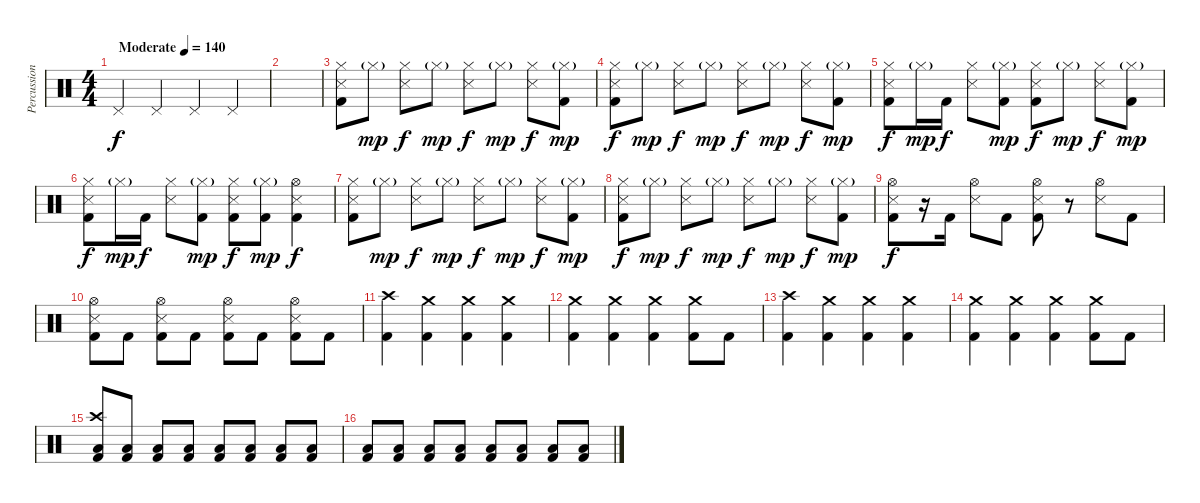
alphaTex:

\track ("Percussion" "Percussion") {instrument percussion}
\staff {score}
\articulation defaults
\ts (4 4)
\tempo (140 "Moderate")
\clef neutral
\ks c "Pedal Hi-Hat (hit)".4{dy f} "Pedal Hi-Hat (hit)".4 "Pedal Hi-Hat (hit)".4 "Pedal Hi-Hat (hit)".4
|
|
("Hi-Hat (closed)" "Snare (side stick) 3" "Kick (hit) 2").8 "Hi-Hat (closed)"{g}.8{dy mp} ("Hi-Hat (closed)" "Snare (side stick) 3").8{dy f} "Hi-Hat (closed)"{g}.8{dy mp} ("Hi-Hat (closed)" "Snare (side stick) 3").8{dy f} "Hi-Hat (closed)"{g}.8{dy mp} ("Hi-Hat (closed)" "Snare (side stick) 3").8{dy f} ("Hi-Hat (closed)"{g} "Kick (hit) 2").8{dy mp} |
("Hi-Hat (closed)" "Snare (side stick) 3" "Kick (hit) 2").8{dy f} "Hi-Hat (closed)"{g}.8{dy mp} ("Hi-Hat (closed)" "Snare (side stick) 3").8{dy f} "Hi-Hat (closed)"{g}.8{dy mp} ("Hi-Hat (closed)" "Snare (side stick) 3").8{dy f} "Hi-Hat (closed)"{g}.8{dy mp} ("Hi-Hat (closed)" "Snare (side stick) 3").8{dy f} ("Hi-Hat (closed)"{g} "Kick (hit) 2").8{dy mp} |
("Hi-Hat (closed)" "Snare (side stick) 3" "Kick (hit) 2").8{dy f} "Hi-Hat (closed)"{g}.16{dy mp} "Kick (hit) 2".16{dy f} ("Hi-Hat (closed)" "Snare (side stick) 3").8 ("Hi-Hat (closed)"{g} "Kick (hit) 2").8{dy mp} ("Hi-Hat (closed)" "Snare (side stick) 3" "Kick (hit) 2").8{dy f} "Hi-Hat (closed)"{g}.8{dy mp} ("Hi-Hat (closed)" "Snare (side stick) 3").8{dy f} ("Hi-Hat (closed)"{g} "Kick (hit) 2").8{dy mp} |
("Hi-Hat (closed)" "Snare (side stick) 3" "Kick (hit) 2").8{dy f} "Hi-Hat (closed)"{g}.16{dy mp} "Kick (hit) 2".16{dy f} ("Hi-Hat (closed)" "Snare (side stick) 3").8 ("Hi-Hat (closed)"{g} "Kick (hit) 2").8{dy mp} ("Hi-Hat (closed)" "Snare (side stick) 3" "Kick (hit) 2").8{dy f} ("Hi-Hat (closed)"{g} "Kick (hit) 2").8{dy mp} ("Hi-Hat (open)" "Snare (side stick) 3" "Kick (hit) 2").4{dy f} |
("Hi-Hat (closed)" "Snare (side stick) 3" "Kick (hit) 2").8 "Hi-Hat (closed)"{g}.8{dy mp} ("Hi-Hat (closed)" "Snare (side stick) 3").8{dy f} "Hi-Hat (closed)"{g}.8{dy mp} ("Hi-Hat (closed)" "Snare (side stick) 3").8{dy f} "Hi-Hat (closed)"{g}.8{dy mp} ("Hi-Hat (closed)" "Snare (side stick) 3").8{dy f} ("Hi-Hat (closed)"{g} "Kick (hit) 2").8{dy mp} |
("Hi-Hat (closed)" "Snare (side stick) 3" "Kick (hit) 2").8{dy f} "Hi-Hat (closed)"{g}.8{dy mp} ("Hi-Hat (closed)" "Snare (side stick) 3").8{dy f} "Hi-Hat (closed)"{g}.8{dy mp} ("Hi-Hat (closed)" "Snare (side stick) 3").8{dy f} "Hi-Hat (closed)"{g}.8{dy mp} ("Hi-Hat (closed)" "Snare (side stick) 3").8{dy f} ("Hi-Hat (closed)"{g} "Kick (hit) 2").8{dy mp} |
("Hi-Hat (open)" "Snare (side stick) 3" "Kick (hit) 2").8{dy f} r.16 "Kick (hit) 2".16 ("Hi-Hat (open)" "Snare (side stick) 3").8 "Kick (hit) 2".8 ("Hi-Hat (open)" "Snare (side stick) 3" "Kick (hit) 2").8 r.8 ("Hi-Hat (open)" "Snare (side stick) 3").8 "Kick (hit) 2".8 |
("Hi-Hat (open)" "Snare (side stick) 3" "Kick (hit) 2").8 "Kick (hit) 2".8 ("Hi-Hat (open)" "Snare (side stick) 3" "Kick (hit) 2").8 "Kick (hit) 2".8 ("Hi-Hat (open)" "Snare (side stick) 3" "Kick (hit) 2").8 "Kick (hit) 2".8 ("Hi-Hat (open)" "Snare (side stick) 3" "Kick (hit) 2").8 "Kick (hit) 2".8 |
("Crash high (hit)" "Kick (hit) 2").4 ("Crash medium (hit)" "Kick (hit) 2").4 ("Crash medium (hit)" "Kick (hit) 2").4 ("Crash medium (hit)" "Kick (hit) 2").4 |
("Crash medium (hit)" "Kick (hit) 2").4 ("Crash medium (hit)" "Kick (hit) 2").4 ("Crash medium (hit)" "Kick (hit) 2").4 ("Crash medium (hit)" "Kick (hit) 2").8 "Kick (hit) 2".8 |
("Crash high (hit)" "Kick (hit) 2").4 ("Crash medium (hit)" "Kick (hit) 2").4 ("Crash medium (hit)" "Kick (hit) 2").4 ("Crash medium (hit)" "Kick (hit) 2").4 |
("Crash medium (hit)" "Kick (hit) 2").4 ("Crash medium (hit)" "Kick (hit) 2").4 ("Crash medium (hit)" "Kick (hit) 2").4 ("Crash medium (hit)" "Kick (hit) 2").8 "Kick (hit) 2".8 |
("Crash high (hit)" "Low Floor Tom (hit)" "Kick (hit) 2").8 ("Low Floor Tom (hit)" "Kick (hit) 2").8 ("Low Floor Tom (hit)" "Kick (hit) 2").8 ("Low Floor Tom (hit)" "Kick (hit) 2").8 ("Low Floor Tom (hit)" "Kick (hit) 2").8 ("Low Floor Tom (hit)" "Kick (hit) 2").8 ("Low Floor Tom (hit)" "Kick (hit) 2").8 ("Low Floor Tom (hit)" "Kick (hit) 2").8 |
("Low Floor Tom (hit)" "Kick (hit) 2").8 ("Low Floor Tom (hit)" "Kick (hit) 2").8 ("Low Floor Tom (hit)" "Kick (hit) 2").8 ("Low Floor Tom (hit)" "Kick (hit) 2").8 ("Low Floor Tom (hit)" "Kick (hit) 2").8 ("Low Floor Tom (hit)" "Kick (hit) 2").8 ("Low Floor Tom (hit)" "Kick (hit) 2").8 ("Low Floor Tom (hit)" "Kick (hit) 2").8
